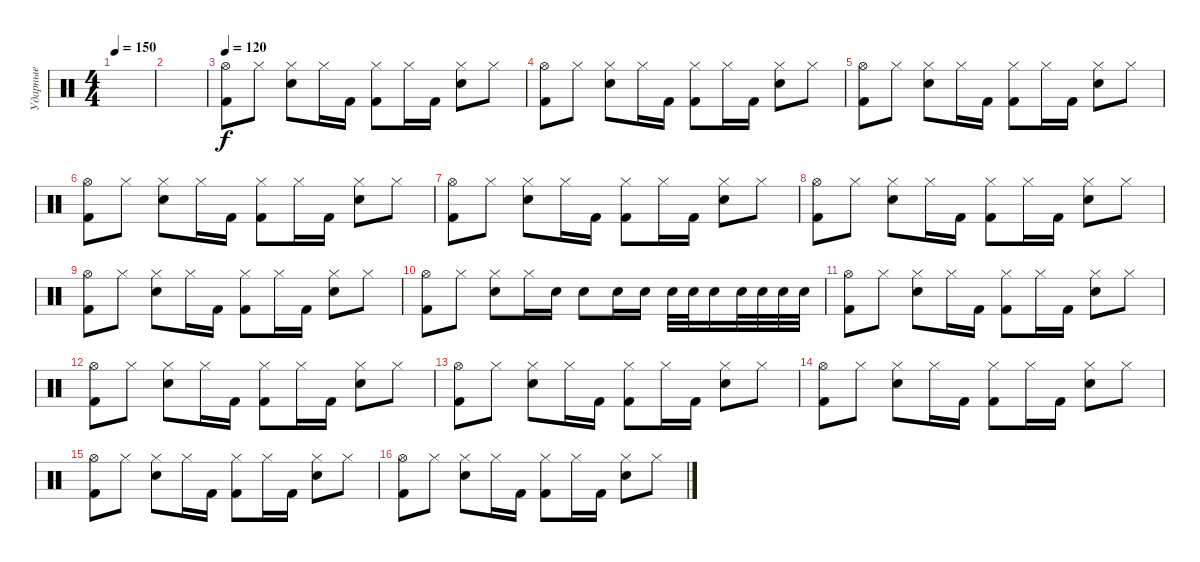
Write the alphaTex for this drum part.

\track ("Ударные" "Ударные") {instrument percussion}
\staff {score}
\articulation defaults
\ts (4 4)
\tempo 150
\clef neutral
\ks aminor
|
|
\tempo 120
("Hi-Hat (open)" "Kick (hit) 2").8 "Hi-Hat (closed)".8 ("Hi-Hat (closed)" "Electric Snare (hit)").8 "Hi-Hat (closed)".16 "Kick (hit) 2".16 ("Hi-Hat (closed)" "Kick (hit) 2").8 "Hi-Hat (closed)".16 "Kick (hit) 2".16 ("Hi-Hat (closed)" "Electric Snare (hit)").8 "Hi-Hat (closed)".8 |
("Hi-Hat (open)" "Kick (hit) 2").8 "Hi-Hat (closed)".8 ("Hi-Hat (closed)" "Electric Snare (hit)").8 "Hi-Hat (closed)".16 "Kick (hit) 2".16 ("Hi-Hat (closed)" "Kick (hit) 2").8 "Hi-Hat (closed)".16 "Kick (hit) 2".16 ("Hi-Hat (closed)" "Electric Snare (hit)").8 "Hi-Hat (closed)".8 |
("Hi-Hat (open)" "Kick (hit) 2").8 "Hi-Hat (closed)".8 ("Hi-Hat (closed)" "Electric Snare (hit)").8 "Hi-Hat (closed)".16 "Kick (hit) 2".16 ("Hi-Hat (closed)" "Kick (hit) 2").8 "Hi-Hat (closed)".16 "Kick (hit) 2".16 ("Hi-Hat (closed)" "Electric Snare (hit)").8 "Hi-Hat (closed)".8 |
("Hi-Hat (open)" "Kick (hit) 2").8 "Hi-Hat (closed)".8 ("Hi-Hat (closed)" "Electric Snare (hit)").8 "Hi-Hat (closed)".16 "Kick (hit) 2".16 ("Hi-Hat (closed)" "Kick (hit) 2").8 "Hi-Hat (closed)".16 "Kick (hit) 2".16 ("Hi-Hat (closed)" "Electric Snare (hit)").8 "Hi-Hat (closed)".8 |
("Hi-Hat (open)" "Kick (hit) 2").8 "Hi-Hat (closed)".8 ("Hi-Hat (closed)" "Electric Snare (hit)").8 "Hi-Hat (closed)".16 "Kick (hit) 2".16 ("Hi-Hat (closed)" "Kick (hit) 2").8 "Hi-Hat (closed)".16 "Kick (hit) 2".16 ("Hi-Hat (closed)" "Electric Snare (hit)").8 "Hi-Hat (closed)".8 |
("Hi-Hat (open)" "Kick (hit) 2").8 "Hi-Hat (closed)".8 ("Hi-Hat (closed)" "Electric Snare (hit)").8 "Hi-Hat (closed)".16 "Kick (hit) 2".16 ("Hi-Hat (closed)" "Kick (hit) 2").8 "Hi-Hat (closed)".16 "Kick (hit) 2".16 ("Hi-Hat (closed)" "Electric Snare (hit)").8 "Hi-Hat (closed)".8 |
("Hi-Hat (open)" "Kick (hit) 2").8 "Hi-Hat (closed)".8 ("Hi-Hat (closed)" "Electric Snare (hit)").8 "Hi-Hat (closed)".16 "Kick (hit) 2".16 ("Hi-Hat (closed)" "Kick (hit) 2").8 "Hi-Hat (closed)".16 "Kick (hit) 2".16 ("Hi-Hat (closed)" "Electric Snare (hit)").8 "Hi-Hat (closed)".8 |
("Hi-Hat (open)" "Kick (hit) 2").8 "Hi-Hat (closed)".8 ("Hi-Hat (closed)" "Electric Snare (hit)").8 "Hi-Hat (closed)".16 "Electric Snare (hit)".16 "Electric Snare (hit)".8 "Electric Snare (hit)".16 "Electric Snare (hit)".16 "Electric Snare (hit)".32 "Electric Snare (hit)".32 "Electric Snare (hit)".16 "Electric Snare (hit)".32 "Electric Snare (hit)".32 "Electric Snare (hit)".32 "Electric Snare (hit)".32 |
("Hi-Hat (open)" "Kick (hit) 2").8 "Hi-Hat (closed)".8 ("Hi-Hat (closed)" "Electric Snare (hit)").8 "Hi-Hat (closed)".16 "Kick (hit) 2".16 ("Hi-Hat (closed)" "Kick (hit) 2").8 "Hi-Hat (closed)".16 "Kick (hit) 2".16 ("Hi-Hat (closed)" "Electric Snare (hit)").8 "Hi-Hat (closed)".8 |
("Hi-Hat (open)" "Kick (hit) 2").8 "Hi-Hat (closed)".8 ("Hi-Hat (closed)" "Electric Snare (hit)").8 "Hi-Hat (closed)".16 "Kick (hit) 2".16 ("Hi-Hat (closed)" "Kick (hit) 2").8 "Hi-Hat (closed)".16 "Kick (hit) 2".16 ("Hi-Hat (closed)" "Electric Snare (hit)").8 "Hi-Hat (closed)".8 |
("Hi-Hat (open)" "Kick (hit) 2").8 "Hi-Hat (closed)".8 ("Hi-Hat (closed)" "Electric Snare (hit)").8 "Hi-Hat (closed)".16 "Kick (hit) 2".16 ("Hi-Hat (closed)" "Kick (hit) 2").8 "Hi-Hat (closed)".16 "Kick (hit) 2".16 ("Hi-Hat (closed)" "Electric Snare (hit)").8 "Hi-Hat (closed)".8 |
("Hi-Hat (open)" "Kick (hit) 2").8 "Hi-Hat (closed)".8 ("Hi-Hat (closed)" "Electric Snare (hit)").8 "Hi-Hat (closed)".16 "Kick (hit) 2".16 ("Hi-Hat (closed)" "Kick (hit) 2").8 "Hi-Hat (closed)".16 "Kick (hit) 2".16 ("Hi-Hat (closed)" "Electric Snare (hit)").8 "Hi-Hat (closed)".8 |
("Hi-Hat (open)" "Kick (hit) 2").8 "Hi-Hat (closed)".8 ("Hi-Hat (closed)" "Electric Snare (hit)").8 "Hi-Hat (closed)".16 "Kick (hit) 2".16 ("Hi-Hat (closed)" "Kick (hit) 2").8 "Hi-Hat (closed)".16 "Kick (hit) 2".16 ("Hi-Hat (closed)" "Electric Snare (hit)").8 "Hi-Hat (closed)".8 |
("Hi-Hat (open)" "Kick (hit) 2").8 "Hi-Hat (closed)".8 ("Hi-Hat (closed)" "Electric Snare (hit)").8 "Hi-Hat (closed)".16 "Kick (hit) 2".16 ("Hi-Hat (closed)" "Kick (hit) 2").8 "Hi-Hat (closed)".16 "Kick (hit) 2".16 ("Hi-Hat (closed)" "Electric Snare (hit)").8 "Hi-Hat (closed)".8
